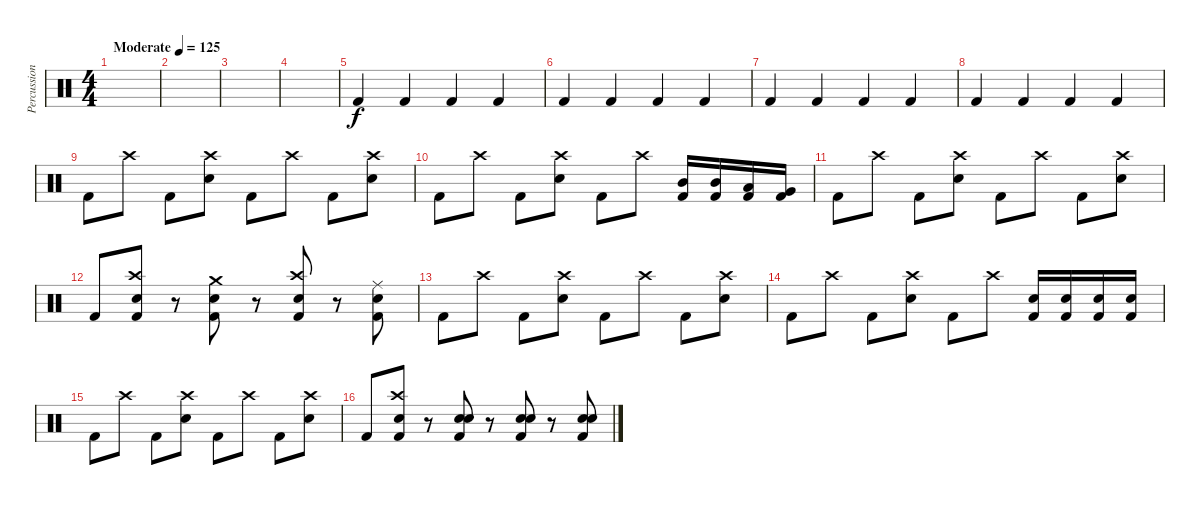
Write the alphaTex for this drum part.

\track ("Percussion" "Percussion") {instrument percussion}
\staff {score}
\articulation defaults
\ts (4 4)
\tempo (125 "Moderate")
\clef neutral
\ks c
|
|
|
|
"Kick (hit) 2".4 "Kick (hit) 2".4 "Kick (hit) 2".4 "Kick (hit) 2".4 |
"Kick (hit) 2".4 "Kick (hit) 2".4 "Kick (hit) 2".4 "Kick (hit) 2".4 |
"Kick (hit) 2".4 "Kick (hit) 2".4 "Kick (hit) 2".4 "Kick (hit) 2".4 |
"Kick (hit) 2".4 "Kick (hit) 2".4 "Kick (hit) 2".4 "Kick (hit) 2".4 |
"Kick (hit) 2".8 "Crash high (hit)".8 "Kick (hit) 2".8 ("Snare (hit) 2" "Crash high (hit)").8 "Kick (hit) 2".8 "Crash high (hit)".8 "Kick (hit) 2".8 ("Snare (hit) 2" "Crash high (hit)").8 |
"Kick (hit) 2".8 "Crash high (hit)".8 "Kick (hit) 2".8 ("Snare (hit) 2" "Crash high (hit)").8 "Kick (hit) 2".8 "Crash high (hit)".8 ("Mid Tom (hit)" "Kick (hit) 2").16 ("Mid Tom (hit)" "Kick (hit) 2").16 ("Low Tom (hit)" "Kick (hit) 2").16 ("Very Low Tom (hit)" "Kick (hit) 2").16 |
"Kick (hit) 2".8 "Crash high (hit)".8 "Kick (hit) 2".8 ("Snare (hit) 2" "Crash high (hit)").8 "Kick (hit) 2".8 "Crash high (hit)".8 "Kick (hit) 2".8 ("Snare (hit) 2" "Crash high (hit)").8 |
"Kick (hit) 2".8 ("Snare (hit) 2" "Crash high (hit)" "Kick (hit) 2").8 r.8 ("Snare (hit) 2" "Crash medium (hit)" "Kick (hit) 2").8 r.8 ("Snare (hit) 2" "Crash high (hit)" "Kick (hit) 2").8 r.8 ("Snare (hit) 2" "Ride (middle)" "Kick (hit) 2").8 |
"Kick (hit) 2".8 "Crash high (hit)".8 "Kick (hit) 2".8 ("Snare (hit) 2" "Crash high (hit)").8 "Kick (hit) 2".8 "Crash high (hit)".8 "Kick (hit) 2".8 ("Snare (hit) 2" "Crash high (hit)").8 |
"Kick (hit) 2".8 "Crash high (hit)".8 "Kick (hit) 2".8 ("Snare (hit) 2" "Crash high (hit)").8 "Kick (hit) 2".8 "Crash high (hit)".8 ("Snare (hit) 2" "Kick (hit) 2").16 ("Snare (hit) 2" "Kick (hit) 2").16 ("Snare (hit) 2" "Kick (hit) 2").16 ("Snare (hit) 2" "Kick (hit) 2").16 |
"Kick (hit) 2".8 "Crash high (hit)".8 "Kick (hit) 2".8 ("Snare (hit) 2" "Crash high (hit)").8 "Kick (hit) 2".8 "Crash high (hit)".8 "Kick (hit) 2".8 ("Snare (hit) 2" "Crash high (hit)").8 |
"Kick (hit) 2".8 ("Snare (hit) 2" "Crash high (hit)" "Kick (hit) 2").8 r.8 ("Snare (hit) 2" "Snare (hit) 2" "Kick (hit) 2").8 r.8 ("Snare (hit) 2" "Snare (hit) 2" "Kick (hit) 2").8 r.8 ("Snare (hit) 2" "Snare (hit) 2" "Kick (hit) 2").8
